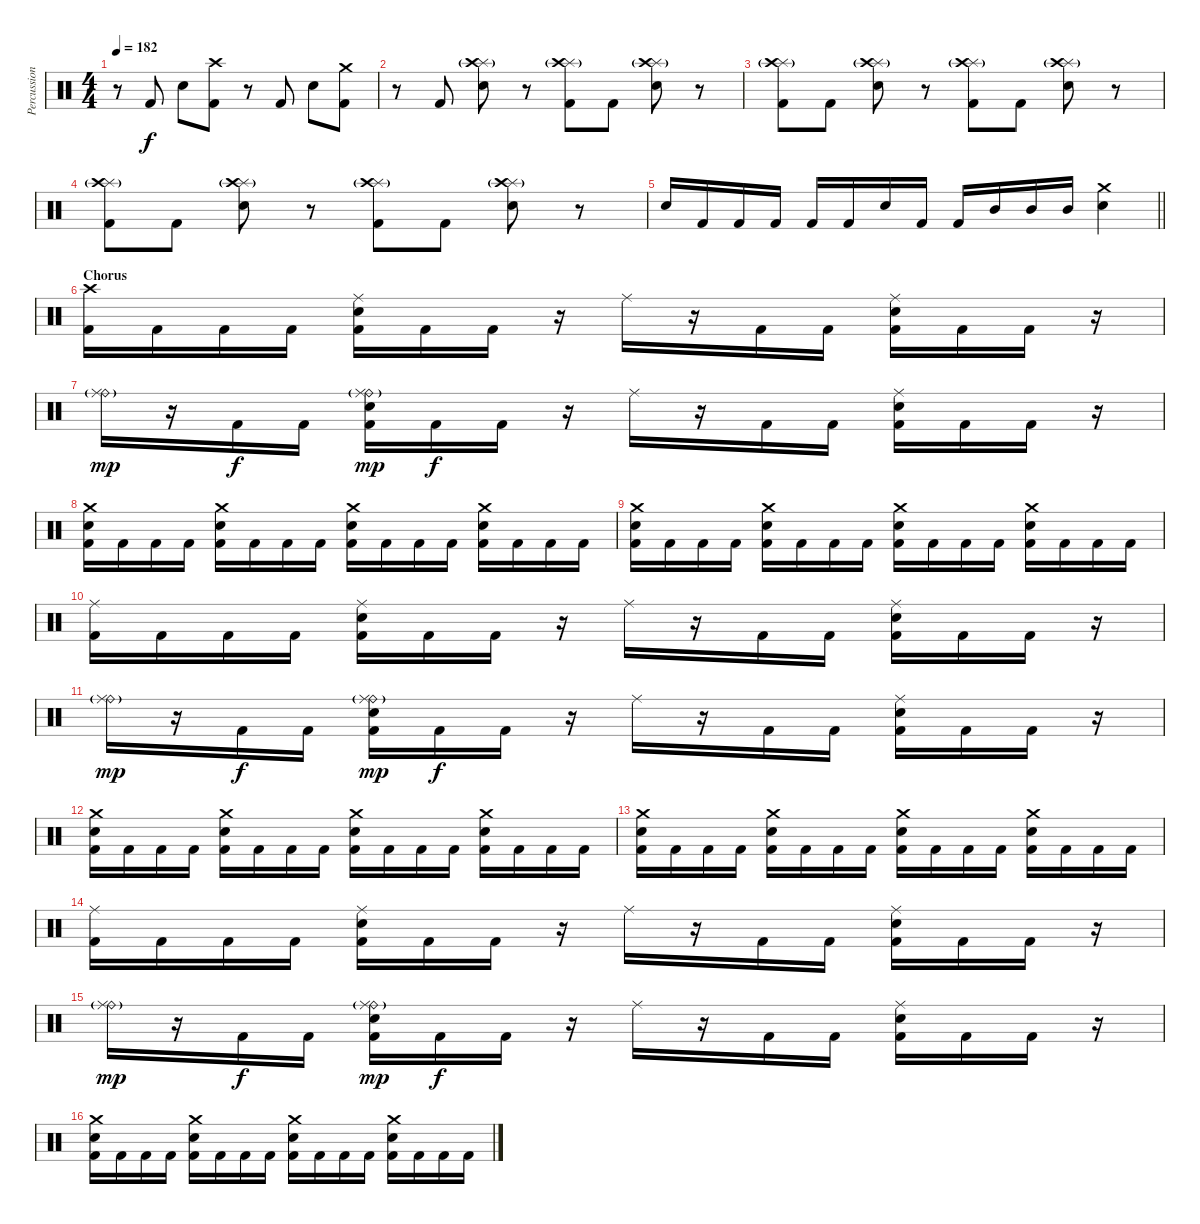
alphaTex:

\track ("Percussion" "Percussion") {instrument percussion}
\staff {score}
\articulation defaults
\ts (4 4)
\tempo 182
\clef neutral
\ks c
r.8{dy f} "Kick (hit) 2".8 "Electric Snare (hit)".8 ("Crash high (hit)" "Kick (hit) 2").8 r.8 "Kick (hit) 2".8 "Electric Snare (hit)".8 ("Crash medium (hit)" "Kick (hit) 2").8 |
r.8 "Kick (hit) 2".8 ("Splash (hit)"{g} "Crash high (hit)" "Electric Snare (hit)").8 r.8 ("Splash (hit)"{g} "Crash high (hit)" "Kick (hit) 2").8 "Kick (hit) 2".8 ("Splash (hit)"{g} "Crash high (hit)" "Electric Snare (hit)").8 r.8 |
("Splash (hit)"{g} "Crash high (hit)" "Kick (hit) 2").8 "Kick (hit) 2".8 ("Splash (hit)"{g} "Crash high (hit)" "Electric Snare (hit)").8 r.8 ("Splash (hit)"{g} "Crash high (hit)" "Kick (hit) 2").8 "Kick (hit) 2".8 ("Splash (hit)"{g} "Crash high (hit)" "Electric Snare (hit)").8 r.8 |
("Splash (hit)"{g} "Crash high (hit)" "Kick (hit) 2").8 "Kick (hit) 2".8 ("Splash (hit)"{g} "Crash high (hit)" "Electric Snare (hit)").8 r.8 ("Splash (hit)"{g} "Crash high (hit)" "Kick (hit) 2").8 "Kick (hit) 2".8 ("Splash (hit)"{g} "Crash high (hit)" "Electric Snare (hit)").8 r.8 |
\barLineRight lightlight "Electric Snare (hit)".16 "Kick (hit) 2".16 "Kick (hit) 2".16 "Kick (hit) 2".16 "Kick (hit) 2".16 "Kick (hit) 2".16 "Electric Snare (hit)".16 "Kick (hit) 2".16 "Kick (hit) 2".16 "Mid Tom (hit)".16 "Mid Tom (hit)".16 "Mid Tom (hit)".16
("Crash medium (hit)" "Electric Snare (hit)").4 |
\section ("" "Chorus")
("Crash high (hit)" "Kick (hit) 2").16 "Kick (hit) 2".16 "Kick (hit) 2".16 "Kick (hit) 2".16 ("Ride (middle)" "Electric Snare (hit)" "Kick (hit) 2").16 "Kick (hit) 2".16 "Kick (hit) 2".16 r.16 "Ride (middle)".16 r.16 "Kick (hit) 2".16 "Kick (hit) 2".16 ("Ride (middle)" "Electric Snare (hit)" "Kick (hit) 2").16 "Kick (hit) 2".16 "Kick (hit) 2".16 r.16 |
("Ride (bell)"{g} "Ride (middle)").16{dy mp} r.16 "Kick (hit) 2".16{dy f} "Kick (hit) 2".16 ("Ride (bell)"{g} "Ride (middle)" "Electric Snare (hit)" "Kick (hit) 2").16{dy mp} "Kick (hit) 2".16{dy f} "Kick (hit) 2".16 r.16 "Ride (middle)".16 r.16 "Kick (hit) 2".16 "Kick (hit) 2".16 ("Ride (middle)" "Electric Snare (hit)" "Kick (hit) 2").16 "Kick (hit) 2".16 "Kick (hit) 2".16 r.16 |
("Crash medium (hit)" "Electric Snare (hit)" "Kick (hit) 2").16 "Kick (hit) 2".16 "Kick (hit) 2".16 "Kick (hit) 2".16 ("Crash medium (hit)" "Electric Snare (hit)" "Kick (hit) 2").16 "Kick (hit) 2".16 "Kick (hit) 2".16 "Kick (hit) 2".16 ("Crash medium (hit)" "Electric Snare (hit)" "Kick (hit) 2").16 "Kick (hit) 2".16 "Kick (hit) 2".16 "Kick (hit) 2".16 ("Crash medium (hit)" "Electric Snare (hit)" "Kick (hit) 2").16 "Kick (hit) 2".16 "Kick (hit) 2".16 "Kick (hit) 2".16 |
("Crash medium (hit)" "Electric Snare (hit)" "Kick (hit) 2").16 "Kick (hit) 2".16 "Kick (hit) 2".16 "Kick (hit) 2".16 ("Crash medium (hit)" "Electric Snare (hit)" "Kick (hit) 2").16 "Kick (hit) 2".16 "Kick (hit) 2".16 "Kick (hit) 2".16 ("Crash medium (hit)" "Electric Snare (hit)" "Kick (hit) 2").16 "Kick (hit) 2".16 "Kick (hit) 2".16 "Kick (hit) 2".16 ("Crash medium (hit)" "Electric Snare (hit)" "Kick (hit) 2").16 "Kick (hit) 2".16 "Kick (hit) 2".16 "Kick (hit) 2".16 |
("Ride (middle)" "Kick (hit) 2").16 "Kick (hit) 2".16 "Kick (hit) 2".16 "Kick (hit) 2".16 ("Ride (middle)" "Electric Snare (hit)" "Kick (hit) 2").16 "Kick (hit) 2".16 "Kick (hit) 2".16 r.16 "Ride (middle)".16 r.16 "Kick (hit) 2".16 "Kick (hit) 2".16 ("Ride (middle)" "Electric Snare (hit)" "Kick (hit) 2").16 "Kick (hit) 2".16 "Kick (hit) 2".16 r.16 |
("Ride (bell)"{g} "Ride (middle)").16{dy mp} r.16 "Kick (hit) 2".16{dy f} "Kick (hit) 2".16 ("Ride (bell)"{g} "Ride (middle)" "Electric Snare (hit)" "Kick (hit) 2").16{dy mp} "Kick (hit) 2".16{dy f} "Kick (hit) 2".16 r.16 "Ride (middle)".16 r.16 "Kick (hit) 2".16 "Kick (hit) 2".16 ("Ride (middle)" "Electric Snare (hit)" "Kick (hit) 2").16 "Kick (hit) 2".16 "Kick (hit) 2".16 r.16 |
("Crash medium (hit)" "Electric Snare (hit)" "Kick (hit) 2").16 "Kick (hit) 2".16 "Kick (hit) 2".16 "Kick (hit) 2".16 ("Crash medium (hit)" "Electric Snare (hit)" "Kick (hit) 2").16 "Kick (hit) 2".16 "Kick (hit) 2".16 "Kick (hit) 2".16 ("Crash medium (hit)" "Electric Snare (hit)" "Kick (hit) 2").16 "Kick (hit) 2".16 "Kick (hit) 2".16 "Kick (hit) 2".16 ("Crash medium (hit)" "Electric Snare (hit)" "Kick (hit) 2").16 "Kick (hit) 2".16 "Kick (hit) 2".16 "Kick (hit) 2".16 |
("Crash medium (hit)" "Electric Snare (hit)" "Kick (hit) 2").16 "Kick (hit) 2".16 "Kick (hit) 2".16 "Kick (hit) 2".16 ("Crash medium (hit)" "Electric Snare (hit)" "Kick (hit) 2").16 "Kick (hit) 2".16 "Kick (hit) 2".16 "Kick (hit) 2".16 ("Crash medium (hit)" "Electric Snare (hit)" "Kick (hit) 2").16 "Kick (hit) 2".16 "Kick (hit) 2".16 "Kick (hit) 2".16 ("Crash medium (hit)" "Electric Snare (hit)" "Kick (hit) 2").16 "Kick (hit) 2".16 "Kick (hit) 2".16 "Kick (hit) 2".16 |
("Ride (middle)" "Kick (hit) 2").16 "Kick (hit) 2".16 "Kick (hit) 2".16 "Kick (hit) 2".16 ("Ride (middle)" "Electric Snare (hit)" "Kick (hit) 2").16 "Kick (hit) 2".16 "Kick (hit) 2".16 r.16 "Ride (middle)".16 r.16 "Kick (hit) 2".16 "Kick (hit) 2".16 ("Ride (middle)" "Electric Snare (hit)" "Kick (hit) 2").16 "Kick (hit) 2".16 "Kick (hit) 2".16 r.16 |
("Ride (bell)"{g} "Ride (middle)").16{dy mp} r.16 "Kick (hit) 2".16{dy f} "Kick (hit) 2".16 ("Ride (bell)"{g} "Ride (middle)" "Electric Snare (hit)" "Kick (hit) 2").16{dy mp} "Kick (hit) 2".16{dy f} "Kick (hit) 2".16 r.16 "Ride (middle)".16 r.16 "Kick (hit) 2".16 "Kick (hit) 2".16 ("Ride (middle)" "Electric Snare (hit)" "Kick (hit) 2").16 "Kick (hit) 2".16 "Kick (hit) 2".16 r.16 |
("Crash medium (hit)" "Electric Snare (hit)" "Kick (hit) 2").16 "Kick (hit) 2".16 "Kick (hit) 2".16 "Kick (hit) 2".16 ("Crash medium (hit)" "Electric Snare (hit)" "Kick (hit) 2").16 "Kick (hit) 2".16 "Kick (hit) 2".16 "Kick (hit) 2".16 ("Crash medium (hit)" "Electric Snare (hit)" "Kick (hit) 2").16 "Kick (hit) 2".16 "Kick (hit) 2".16 "Kick (hit) 2".16 ("Crash medium (hit)" "Electric Snare (hit)" "Kick (hit) 2").16 "Kick (hit) 2".16 "Kick (hit) 2".16 "Kick (hit) 2".16
